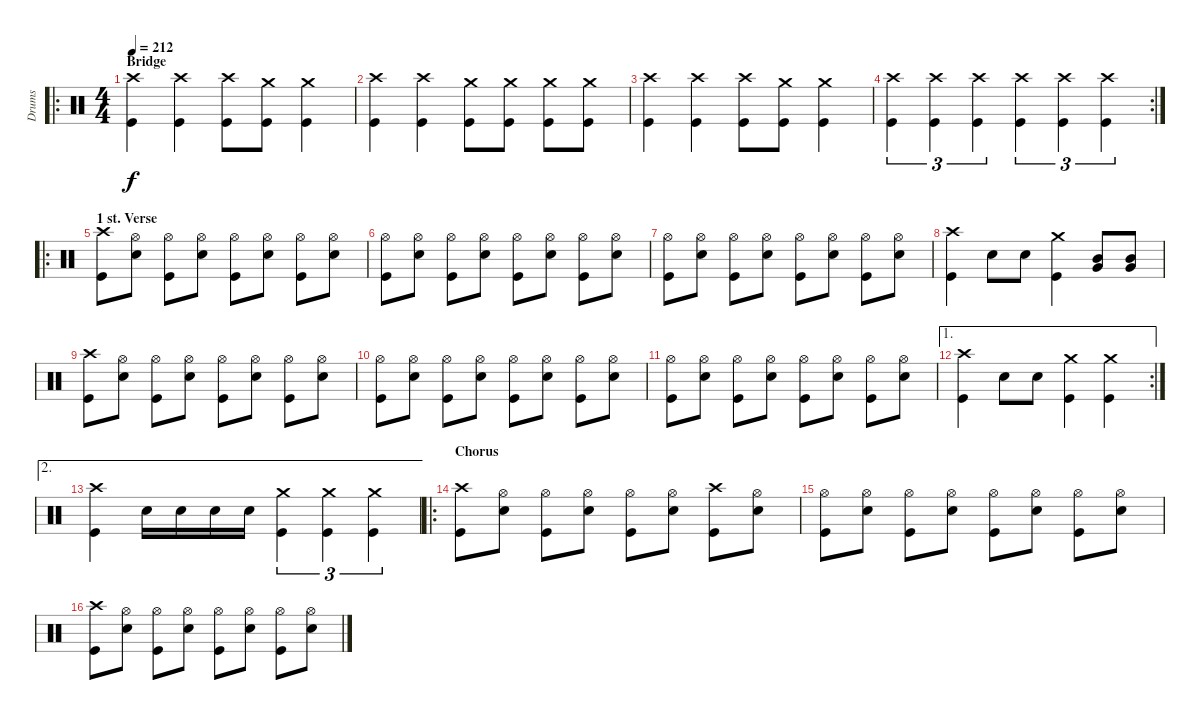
\track ("Drums" "Drums") {instrument percussion}
\staff {score}
\articulation defaults
\ro
\ts (4 4)
\section ("" "Bridge")
\tempo 212
\clef neutral
\ks c
("Crash high (hit)" "Kick (hit)").4{dy f} ("Crash high (hit)" "Kick (hit)").4 ("Crash high (hit)" "Kick (hit)").8 ("Crash medium (hit)" "Kick (hit)").8 ("Crash medium (hit)" "Kick (hit)").4 |
("Crash high (hit)" "Kick (hit)").4 ("Crash high (hit)" "Kick (hit)").4 ("Crash medium (hit)" "Kick (hit)").8 ("Crash medium (hit)" "Kick (hit)").8 ("Crash medium (hit)" "Kick (hit)").8 ("Crash medium (hit)" "Kick (hit)").8 |
("Crash high (hit)" "Kick (hit)").4 ("Crash high (hit)" "Kick (hit)").4 ("Crash high (hit)" "Kick (hit)").8 ("Crash medium (hit)" "Kick (hit)").8 ("Crash medium (hit)" "Kick (hit)").4 |
\rc 2
("Crash high (hit)" "Kick (hit)").4{tu (3 2)} ("Crash high (hit)" "Kick (hit)").4{tu (3 2)} ("Crash high (hit)" "Kick (hit)").4{tu (3 2)} ("Crash high (hit)" "Kick (hit)").4{tu (3 2)} ("Crash high (hit)" "Kick (hit)").4{tu (3 2)} ("Crash high (hit)" "Kick (hit)").4{tu (3 2)} |
\ro
\section ("" "1 st. Verse")
("Crash high (hit)" "Kick (hit)").8 ("Hi-Hat (open)" "Snare (hit) 2").8 ("Hi-Hat (open)" "Kick (hit)").8 ("Hi-Hat (open)" "Snare (hit) 2").8 ("Hi-Hat (open)" "Kick (hit)").8 ("Hi-Hat (open)" "Snare (hit) 2").8 ("Hi-Hat (open)" "Kick (hit)").8 ("Hi-Hat (open)" "Snare (hit) 2").8 |
("Hi-Hat (open)" "Kick (hit)").8 ("Hi-Hat (open)" "Snare (hit) 2").8 ("Hi-Hat (open)" "Kick (hit)").8 ("Hi-Hat (open)" "Snare (hit) 2").8 ("Hi-Hat (open)" "Kick (hit)").8 ("Hi-Hat (open)" "Snare (hit) 2").8 ("Hi-Hat (open)" "Kick (hit)").8 ("Hi-Hat (open)" "Snare (hit) 2").8 |
("Hi-Hat (open)" "Kick (hit)").8 ("Hi-Hat (open)" "Snare (hit) 2").8 ("Hi-Hat (open)" "Kick (hit)").8 ("Hi-Hat (open)" "Snare (hit) 2").8 ("Hi-Hat (open)" "Kick (hit)").8 ("Hi-Hat (open)" "Snare (hit) 2").8 ("Hi-Hat (open)" "Kick (hit)").8 ("Hi-Hat (open)" "Snare (hit) 2").8 |
("Crash high (hit)" "Kick (hit)").4 "Snare (hit) 2".8 "Snare (hit) 2".8 ("Crash medium (hit)" "Kick (hit)").4 ("Very Low Tom (hit)" "Mid Tom (hit)").8 ("Very Low Tom (hit)" "Mid Tom (hit)").8 |
("Crash high (hit)" "Kick (hit)").8 ("Hi-Hat (open)" "Snare (hit) 2").8 ("Hi-Hat (open)" "Kick (hit)").8 ("Hi-Hat (open)" "Snare (hit) 2").8 ("Hi-Hat (open)" "Kick (hit)").8 ("Hi-Hat (open)" "Snare (hit) 2").8 ("Hi-Hat (open)" "Kick (hit)").8 ("Hi-Hat (open)" "Snare (hit) 2").8 |
("Hi-Hat (open)" "Kick (hit)").8 ("Hi-Hat (open)" "Snare (hit) 2").8 ("Hi-Hat (open)" "Kick (hit)").8 ("Hi-Hat (open)" "Snare (hit) 2").8 ("Hi-Hat (open)" "Kick (hit)").8 ("Hi-Hat (open)" "Snare (hit) 2").8 ("Hi-Hat (open)" "Kick (hit)").8 ("Hi-Hat (open)" "Snare (hit) 2").8 |
("Hi-Hat (open)" "Kick (hit)").8 ("Hi-Hat (open)" "Snare (hit) 2").8 ("Hi-Hat (open)" "Kick (hit)").8 ("Hi-Hat (open)" "Snare (hit) 2").8 ("Hi-Hat (open)" "Kick (hit)").8 ("Hi-Hat (open)" "Snare (hit) 2").8 ("Hi-Hat (open)" "Kick (hit)").8 ("Hi-Hat (open)" "Snare (hit) 2").8 |
\ae 1
\rc 2
("Crash high (hit)" "Kick (hit)").4 "Snare (hit) 2".8 "Snare (hit) 2".8 ("Crash medium (hit)" "Kick (hit)").4 ("Crash medium (hit)" "Kick (hit)").4 |
\ae 2
("Crash high (hit)" "Kick (hit)").4 "Snare (hit) 2".16 "Snare (hit) 2".16 "Snare (hit) 2".16 "Snare (hit) 2".16 ("Crash medium (hit)" "Kick (hit)").4{tu (3 2)} ("Crash medium (hit)" "Kick (hit)").4{tu (3 2)} ("Crash medium (hit)" "Kick (hit)").4{tu (3 2)} |
\ro
\section ("" "Chorus")
("Crash high (hit)" "Kick (hit)").8 ("Hi-Hat (open)" "Snare (hit) 2").8 ("Hi-Hat (open)" "Kick (hit)").8 ("Hi-Hat (open)" "Snare (hit) 2").8 ("Hi-Hat (open)" "Kick (hit)").8 ("Hi-Hat (open)" "Snare (hit) 2").8 ("Crash high (hit)" "Kick (hit)").8 ("Hi-Hat (open)" "Snare (hit) 2").8 |
("Hi-Hat (open)" "Kick (hit)").8 ("Hi-Hat (open)" "Snare (hit) 2").8 ("Hi-Hat (open)" "Kick (hit)").8 ("Hi-Hat (open)" "Snare (hit) 2").8 ("Hi-Hat (open)" "Kick (hit)").8 ("Hi-Hat (open)" "Snare (hit) 2").8 ("Hi-Hat (open)" "Kick (hit)").8 ("Hi-Hat (open)" "Snare (hit) 2").8 |
("Crash high (hit)" "Kick (hit)").8 ("Hi-Hat (open)" "Snare (hit) 2").8 ("Hi-Hat (open)" "Kick (hit)").8 ("Hi-Hat (open)" "Snare (hit) 2").8 ("Hi-Hat (open)" "Kick (hit)").8 ("Hi-Hat (open)" "Snare (hit) 2").8 ("Hi-Hat (open)" "Kick (hit)").8 ("Hi-Hat (open)" "Snare (hit) 2").8
